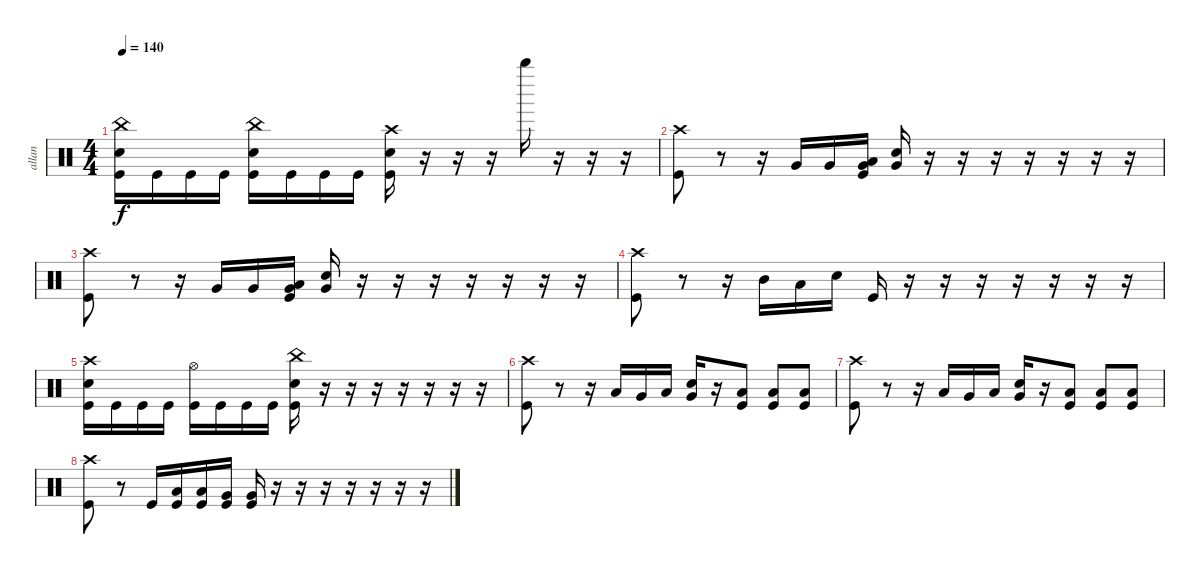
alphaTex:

\track ("allan" "allan") {instrument percussion}
\staff {score}
\articulation defaults
\ts (4 4)
\tempo 140
\clef neutral
\ks c
("China (hit)" "Snare (hit) 2" "Kick (hit)").16{dy f} "Kick (hit)".16 "Kick (hit)".16 "Kick (hit)".16 ("China (hit)" "Snare (hit) 2" "Kick (hit)").16 "Kick (hit)".16 "Kick (hit)".16 "Kick (hit)".16 ("Crash high (hit)" "Snare (hit) 2" "Kick (hit)").16 r.16 r.16 r.16 "Whistle high (hit)".16 r.16 r.16 r.16 |
("Crash high (hit)" "Kick (hit)").8 r.8 r.16 "Very Low Tom (hit)".16 "Very Low Tom (hit)".16 ("Very Low Tom (hit)" "Low Tom (hit)" "Kick (hit)").16 ("Snare (hit) 2" "Very Low Tom (hit)").16 r.16 r.16 r.16 r.16 r.16 r.16 r.16 |
("Crash high (hit)" "Kick (hit)").8 r.8 r.16 "Very Low Tom (hit)".16 "Very Low Tom (hit)".16 ("Very Low Tom (hit)" "Low Tom (hit)" "Kick (hit)").16 ("Snare (hit) 2" "Very Low Tom (hit)").16 r.16 r.16 r.16 r.16 r.16 r.16 r.16 |
("Crash high (hit)" "Kick (hit)").8 r.8 r.16 "Mid Tom (hit)".16 "Low Tom (hit)".16 "Snare (hit) 2".16 "Kick (hit)".16 r.16 r.16 r.16 r.16 r.16 r.16 r.16 |
("Crash high (hit)" "Snare (hit) 2" "Kick (hit)").16 "Kick (hit)".16 "Kick (hit)".16 "Kick (hit)".16 ("Hi-Hat (open)" "Kick (hit)").16 "Kick (hit)".16 "Kick (hit)".16 "Kick (hit)".16 ("China (hit)" "Snare (hit) 2" "Kick (hit)").16 r.16 r.16 r.16 r.16 r.16 r.16 r.16 |
("Crash high (hit)" "Kick (hit)").8 r.8 r.16 "Low Tom (hit)".16 "Very Low Tom (hit)".16 "Low Floor Tom (hit)".16 ("Snare (hit) 2" "Very Low Tom (hit)").16 r.16 ("Low Tom (hit)" "Kick (hit)").8 ("Low Tom (hit)" "Kick (hit)").8 ("Low Tom (hit)" "Kick (hit)").8 |
("Crash high (hit)" "Kick (hit)").8 r.8 r.16 "Low Tom (hit)".16 "Very Low Tom (hit)".16 "Low Floor Tom (hit)".16 ("Snare (hit) 2" "Very Low Tom (hit)").16 r.16 ("Low Tom (hit)" "Kick (hit)").8 ("Low Tom (hit)" "Kick (hit)").8 ("Low Tom (hit)" "Kick (hit)").8 |
("Crash high (hit)" "Kick (hit)").8 r.8 "Kick (hit)".16 ("Low Tom (hit)" "Kick (hit)").16 ("Low Tom (hit)" "Kick (hit)").16 ("Very Low Tom (hit)" "Kick (hit)").16 ("Very Low Tom (hit)" "Kick (hit)").16 r.16 r.16 r.16 r.16 r.16 r.16 r.16
